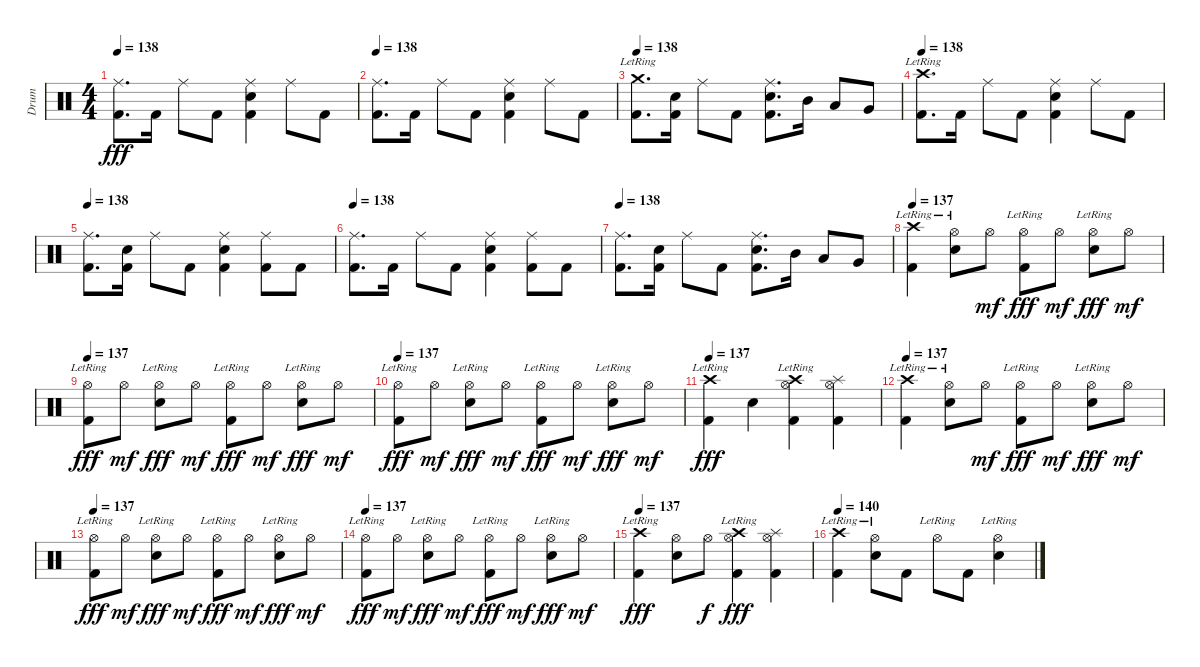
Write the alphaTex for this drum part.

\track ("Drum" "Drum") {instrument percussion}
\staff {score}
\articulation defaults
\ts (4 4)
\tempo 138
\clef neutral
\ks c
("Ride (middle)" "Kick (hit) 2").8{d dy fff} "Kick (hit) 2".16 "Ride (middle)".8 "Kick (hit) 2".8 ("Ride (middle)" "Electric Snare (hit)" "Kick (hit) 2").4 "Ride (middle)".8 "Kick (hit) 2".8 |
\tempo 138
("Ride (middle)" "Kick (hit) 2").8{d} "Kick (hit) 2".16 "Ride (middle)".8 "Kick (hit) 2".8 ("Ride (middle)" "Electric Snare (hit)" "Kick (hit) 2").4 "Ride (middle)".8 "Kick (hit) 2".8 |
\tempo 138
("Crash medium (hit)"{lr} "Kick (hit) 2").8{d} ("Electric Snare (hit)" "Kick (hit) 2").16 "Ride (middle)".8 "Kick (hit) 2".8 ("Ride (middle)" "Electric Snare (hit)" "Kick (hit) 2").8{d} "Mid Tom (hit)".16 "Low Tom (hit)".8 "Very Low Tom (hit)".8 |
\tempo 138
("Crash high (hit)"{lr} "Kick (hit) 2").8{d} "Kick (hit) 2".16 "Ride (middle)".8 "Kick (hit) 2".8 ("Ride (middle)" "Electric Snare (hit)" "Kick (hit) 2").4 "Ride (middle)".8 "Kick (hit) 2".8 |
\tempo 138
("Ride (middle)" "Kick (hit) 2").8{d} ("Electric Snare (hit)" "Kick (hit) 2").16 "Ride (middle)".8 "Kick (hit) 2".8 ("Ride (middle)" "Electric Snare (hit)" "Kick (hit) 2").4 ("Ride (middle)" "Kick (hit) 2").8 "Kick (hit) 2".8 |
\tempo 138
("Ride (middle)" "Kick (hit) 2").8{d} "Kick (hit) 2".16 "Ride (middle)".8 "Kick (hit) 2".8 ("Ride (middle)" "Electric Snare (hit)" "Kick (hit) 2").4 ("Ride (middle)" "Kick (hit) 2").8 "Kick (hit) 2".8 |
\tempo 138
("Ride (middle)" "Kick (hit) 2").8{d} ("Electric Snare (hit)" "Kick (hit) 2").16 "Ride (middle)".8 "Kick (hit) 2".8 ("Ride (middle)" "Electric Snare (hit)" "Kick (hit) 2").8{d} "Mid Tom (hit)".16 "Low Tom (hit)".8 "Very Low Tom (hit)".8 |
\tempo 137
("Crash high (hit)"{lr} "Kick (hit) 2").4 ("Hi-Hat (open)"{lr} "Electric Snare (hit)").8 "Hi-Hat (open)".8{dy mf} ("Hi-Hat (open)"{lr} "Kick (hit) 2").8{dy fff} "Hi-Hat (open)".8{dy mf} ("Hi-Hat (open)"{lr} "Electric Snare (hit)").8{dy fff} "Hi-Hat (open)".8{dy mf} |
\tempo 137
("Hi-Hat (open)"{lr} "Kick (hit) 2").8{dy fff} "Hi-Hat (open)".8{dy mf} ("Hi-Hat (open)"{lr} "Electric Snare (hit)").8{dy fff} "Hi-Hat (open)".8{dy mf} ("Hi-Hat (open)"{lr} "Kick (hit) 2").8{dy fff} "Hi-Hat (open)".8{dy mf} ("Hi-Hat (open)"{lr} "Electric Snare (hit)").8{dy fff} "Hi-Hat (open)".8{dy mf} |
\tempo 137
("Hi-Hat (open)"{lr} "Kick (hit) 2").8{dy fff} "Hi-Hat (open)".8{dy mf} ("Hi-Hat (open)"{lr} "Electric Snare (hit)").8{dy fff} "Hi-Hat (open)".8{dy mf} ("Hi-Hat (open)"{lr} "Kick (hit) 2").8{dy fff} "Hi-Hat (open)".8{dy mf} ("Hi-Hat (open)"{lr} "Electric Snare (hit)").8{dy fff} "Hi-Hat (open)".8{dy mf} |
\tempo 137
("Crash high (hit)"{lr} "Kick (hit) 2").4{dy fff} "Electric Snare (hit)".4 ("Crash high (hit)"{lr} "Hi-Hat (open)" "Kick (hit) 2").4 ("Splash (hit)" "Hi-Hat (open)" "Kick (hit) 2").4 |
\tempo 137
("Crash high (hit)"{lr} "Kick (hit) 2").4 ("Hi-Hat (open)"{lr} "Electric Snare (hit)").8 "Hi-Hat (open)".8{dy mf} ("Hi-Hat (open)"{lr} "Kick (hit) 2").8{dy fff} "Hi-Hat (open)".8{dy mf} ("Hi-Hat (open)"{lr} "Electric Snare (hit)").8{dy fff} "Hi-Hat (open)".8{dy mf} |
\tempo 137
("Hi-Hat (open)"{lr} "Kick (hit) 2").8{dy fff} "Hi-Hat (open)".8{dy mf} ("Hi-Hat (open)"{lr} "Electric Snare (hit)").8{dy fff} "Hi-Hat (open)".8{dy mf} ("Hi-Hat (open)"{lr} "Kick (hit) 2").8{dy fff} "Hi-Hat (open)".8{dy mf} ("Hi-Hat (open)"{lr} "Electric Snare (hit)").8{dy fff} "Hi-Hat (open)".8{dy mf} |
\tempo 137
("Hi-Hat (open)"{lr} "Kick (hit) 2").8{dy fff} "Hi-Hat (open)".8{dy mf} ("Hi-Hat (open)"{lr} "Electric Snare (hit)").8{dy fff} "Hi-Hat (open)".8{dy mf} ("Hi-Hat (open)"{lr} "Kick (hit) 2").8{dy fff} "Hi-Hat (open)".8{dy mf} ("Hi-Hat (open)"{lr} "Electric Snare (hit)").8{dy fff} "Hi-Hat (open)".8{dy mf} |
\tempo 137
("Crash high (hit)"{lr} "Kick (hit) 2").4{dy fff} ("Hi-Hat (open)" "Electric Snare (hit)").8 "Hi-Hat (open)".8{dy f} ("Crash high (hit)"{lr} "Hi-Hat (open)" "Kick (hit) 2").4{dy fff} ("Splash (hit)" "Hi-Hat (open)" "Kick (hit) 2").4 |
\tempo 140
("Crash high (hit)"{lr} "Kick (hit) 2").4 ("Hi-Hat (open)"{lr} "Electric Snare (hit)").8 "Kick (hit) 2".8 "Hi-Hat (open)"{lr}.8 "Kick (hit) 2".8 ("Hi-Hat (open)"{lr} "Electric Snare (hit)").4
